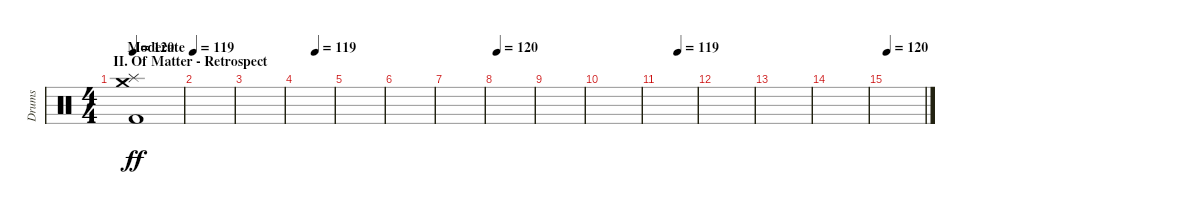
\track ("Drums" "Drums") {instrument percussion}
\staff {score}
\articulation defaults
\ts (4 4)
\section ("" "II. Of Matter - Retrospect")
\tempo (119 "Moderate")
\tempo (120 0.125)
\tempo (119 "Moderate")
\clef neutral
\ks c
("Crash medium (hit)" "Splash (hit)" "Kick (hit) 2").1{dy ff} |
|
|
\tempo (119 0.5)
|
|
|
|
\tempo 120
|
|
|
\tempo (119 0.5)
|
|
|
|
\tempo 120
